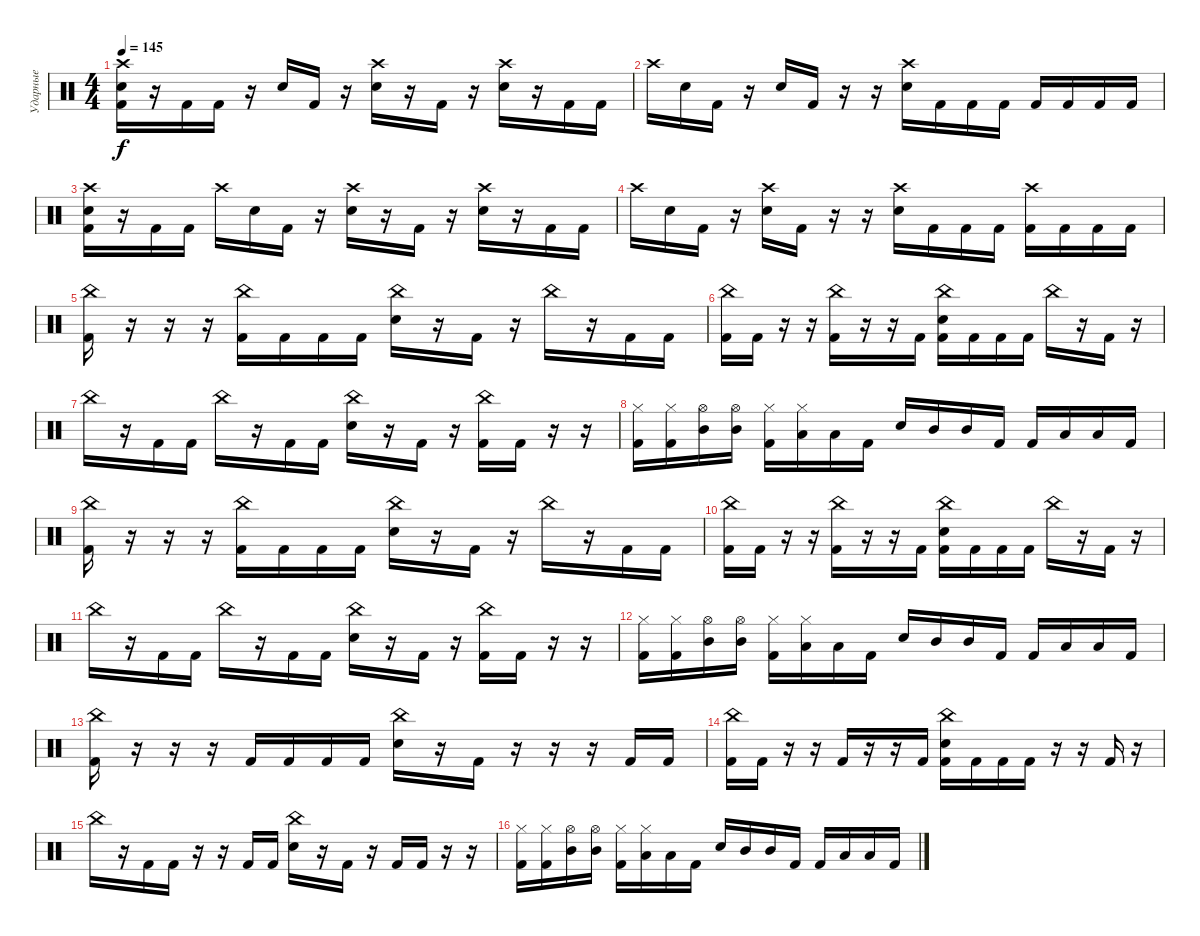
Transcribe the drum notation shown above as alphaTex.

\track ("Ударные" "Ударные") {instrument percussion}
\staff {score}
\articulation defaults
\ts (4 4)
\tempo 145
\clef neutral
\ks c
("Crash high (hit)" "Electric Snare (hit)" "Kick (hit) 2").16{dy f} r.16 "Kick (hit) 2".16 "Kick (hit) 2".16 r.16 "Electric Snare (hit)".16 "Kick (hit) 2".16 r.16 ("Crash high (hit)" "Electric Snare (hit)").16 r.16 "Kick (hit) 2".16 r.16 ("Crash high (hit)" "Electric Snare (hit)").16 r.16 "Kick (hit) 2".16 "Kick (hit) 2".16 |
"Crash high (hit)".16 "Electric Snare (hit)".16 "Kick (hit) 2".16 r.16 "Electric Snare (hit)".16 "Kick (hit) 2".16 r.16 r.16 ("Crash high (hit)" "Electric Snare (hit)").16 "Kick (hit) 2".16 "Kick (hit) 2".16 "Kick (hit) 2".16 "Kick (hit) 2".16 "Kick (hit) 2".16 "Kick (hit) 2".16 "Kick (hit) 2".16 |
("Crash high (hit)" "Electric Snare (hit)" "Kick (hit) 2").16 r.16 "Kick (hit) 2".16 "Kick (hit) 2".16 "Crash high (hit)".16 "Electric Snare (hit)".16 "Kick (hit) 2".16 r.16 ("Crash high (hit)" "Electric Snare (hit)").16 r.16 "Kick (hit) 2".16 r.16 ("Crash high (hit)" "Electric Snare (hit)").16 r.16 "Kick (hit) 2".16 "Kick (hit) 2".16 |
"Crash high (hit)".16 "Electric Snare (hit)".16 "Kick (hit) 2".16 r.16 ("Crash high (hit)" "Electric Snare (hit)").16 "Kick (hit) 2".16 r.16 r.16 ("Crash high (hit)" "Electric Snare (hit)").16 "Kick (hit) 2".16 "Kick (hit) 2".16 "Kick (hit) 2".16 ("Crash high (hit)" "Kick (hit) 2").16 "Kick (hit) 2".16 "Kick (hit) 2".16 "Kick (hit) 2".16 |
("China (hit)" "Kick (hit) 2").16 r.16 r.16 r.16 ("China (hit)" "Kick (hit) 2").16 "Kick (hit) 2".16 "Kick (hit) 2".16 "Kick (hit) 2".16 ("China (hit)" "Electric Snare (hit)").16 r.16 "Kick (hit) 2".16 r.16 "China (hit)".16 r.16 "Kick (hit) 2".16 "Kick (hit) 2".16 |
("China (hit)" "Kick (hit) 2").16 "Kick (hit) 2".16 r.16 r.16 ("China (hit)" "Kick (hit) 2").16 r.16 r.16 "Kick (hit) 2".16 ("China (hit)" "Electric Snare (hit)" "Kick (hit) 2").16 "Kick (hit) 2".16 "Kick (hit) 2".16 "Kick (hit) 2".16 "China (hit)".16 r.16 "Kick (hit) 2".16 r.16 |
"China (hit)".16 r.16 "Kick (hit) 2".16 "Kick (hit) 2".16 "China (hit)".16 r.16 "Kick (hit) 2".16 "Kick (hit) 2".16 ("China (hit)" "Electric Snare (hit)").16 r.16 "Kick (hit) 2".16 r.16 ("China (hit)" "Kick (hit) 2").16 "Kick (hit) 2".16 r.16 r.16 |
("Hi-Hat (closed)" "Kick (hit) 2").16 ("Hi-Hat (closed)" "Kick (hit) 2").16 ("Hi-Hat (open)" "Mid Tom (hit)").16 ("Hi-Hat (open)" "Mid Tom (hit)").16 ("Hi-Hat (closed)" "Kick (hit) 2").16 ("Hi-Hat (closed)" "Low Tom (hit)").16 "Low Tom (hit)".16 "Kick (hit) 2".16 "Electric Snare (hit)".16 "Mid Tom (hit)".16 "Mid Tom (hit)".16 "Kick (hit) 2".16 "Kick (hit) 2".16 "Low Tom (hit)".16 "Low Tom (hit)".16 "Kick (hit) 2".16 |
("China (hit)" "Kick (hit) 2").16 r.16 r.16 r.16 ("China (hit)" "Kick (hit) 2").16 "Kick (hit) 2".16 "Kick (hit) 2".16 "Kick (hit) 2".16 ("China (hit)" "Electric Snare (hit)").16 r.16 "Kick (hit) 2".16 r.16 "China (hit)".16 r.16 "Kick (hit) 2".16 "Kick (hit) 2".16 |
("China (hit)" "Kick (hit) 2").16 "Kick (hit) 2".16 r.16 r.16 ("China (hit)" "Kick (hit) 2").16 r.16 r.16 "Kick (hit) 2".16 ("China (hit)" "Electric Snare (hit)" "Kick (hit) 2").16 "Kick (hit) 2".16 "Kick (hit) 2".16 "Kick (hit) 2".16 "China (hit)".16 r.16 "Kick (hit) 2".16 r.16 |
"China (hit)".16 r.16 "Kick (hit) 2".16 "Kick (hit) 2".16 "China (hit)".16 r.16 "Kick (hit) 2".16 "Kick (hit) 2".16 ("China (hit)" "Electric Snare (hit)").16 r.16 "Kick (hit) 2".16 r.16 ("China (hit)" "Kick (hit) 2").16 "Kick (hit) 2".16 r.16 r.16 |
("Hi-Hat (closed)" "Kick (hit) 2").16 ("Hi-Hat (closed)" "Kick (hit) 2").16 ("Hi-Hat (open)" "Mid Tom (hit)").16 ("Hi-Hat (open)" "Mid Tom (hit)").16 ("Hi-Hat (closed)" "Kick (hit) 2").16 ("Hi-Hat (closed)" "Low Tom (hit)").16 "Low Tom (hit)".16 "Kick (hit) 2".16 "Electric Snare (hit)".16 "Mid Tom (hit)".16 "Mid Tom (hit)".16 "Kick (hit) 2".16 "Kick (hit) 2".16 "Low Tom (hit)".16 "Low Tom (hit)".16 "Kick (hit) 2".16 |
("China (hit)" "Kick (hit) 2").16 r.16 r.16 r.16 "Kick (hit) 2".16 "Kick (hit) 2".16 "Kick (hit) 2".16 "Kick (hit) 2".16 ("China (hit)" "Electric Snare (hit)").16 r.16 "Kick (hit) 2".16 r.16 r.16 r.16 "Kick (hit) 2".16 "Kick (hit) 2".16 |
("China (hit)" "Kick (hit) 2").16 "Kick (hit) 2".16 r.16 r.16 "Kick (hit) 2".16 r.16 r.16 "Kick (hit) 2".16 ("China (hit)" "Electric Snare (hit)" "Kick (hit) 2").16 "Kick (hit) 2".16 "Kick (hit) 2".16 "Kick (hit) 2".16 r.16 r.16 "Kick (hit) 2".16 r.16 |
"China (hit)".16 r.16 "Kick (hit) 2".16 "Kick (hit) 2".16 r.16 r.16 "Kick (hit) 2".16 "Kick (hit) 2".16 ("China (hit)" "Electric Snare (hit)").16 r.16 "Kick (hit) 2".16 r.16 "Kick (hit) 2".16 "Kick (hit) 2".16 r.16 r.16 |
("Hi-Hat (closed)" "Kick (hit) 2").16 ("Hi-Hat (closed)" "Kick (hit) 2").16 ("Hi-Hat (open)" "Mid Tom (hit)").16 ("Hi-Hat (open)" "Mid Tom (hit)").16 ("Hi-Hat (closed)" "Kick (hit) 2").16 ("Hi-Hat (closed)" "Low Tom (hit)").16 "Low Tom (hit)".16 "Kick (hit) 2".16 "Electric Snare (hit)".16 "Mid Tom (hit)".16 "Mid Tom (hit)".16 "Kick (hit) 2".16 "Kick (hit) 2".16 "Low Tom (hit)".16 "Low Tom (hit)".16 "Kick (hit) 2".16
